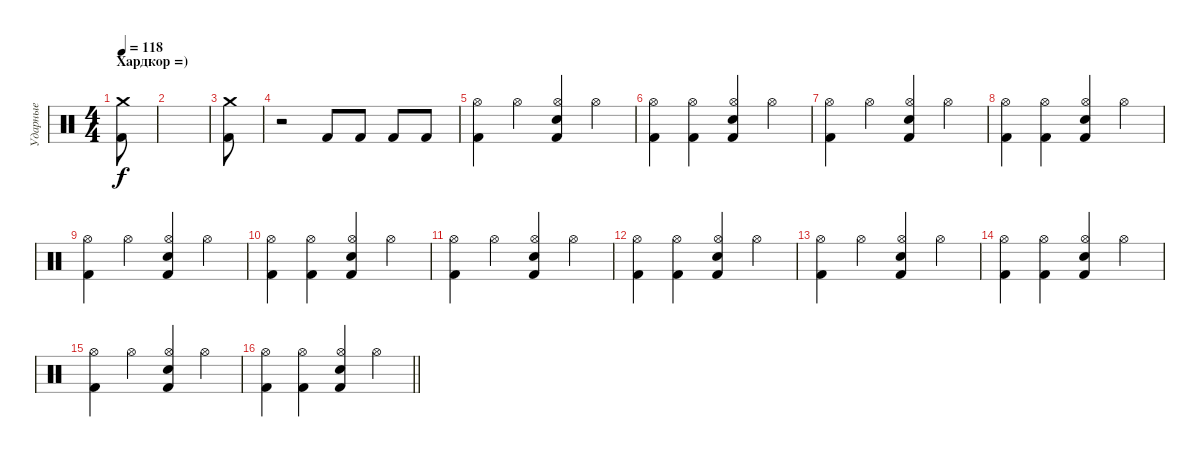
\track ("Ударные" "Ударные") {instrument percussion}
\staff {score}
\articulation defaults
\ts (4 4)
\section ("" "Хардкор =)")
\tempo 118
\clef neutral
\ks c
("Kick (hit) 2" "Crash medium (hit)").8{dy f} |
|
("Kick (hit) 2" "Crash medium (hit)").8 |
r.2 "Kick (hit) 2".8 "Kick (hit) 2".8 "Kick (hit) 2".8 "Kick (hit) 2".8 |
("Hi-Hat (open)" "Kick (hit) 2").4 "Hi-Hat (open)".4 ("Hi-Hat (open)" "Kick (hit) 2" "Electric Snare (hit)").4 "Hi-Hat (open)".4 |
("Hi-Hat (open)" "Kick (hit) 2").4 ("Hi-Hat (open)" "Kick (hit) 2").4 ("Hi-Hat (open)" "Kick (hit) 2" "Electric Snare (hit)").4 "Hi-Hat (open)".4 |
("Hi-Hat (open)" "Kick (hit) 2").4 "Hi-Hat (open)".4 ("Hi-Hat (open)" "Kick (hit) 2" "Electric Snare (hit)").4 "Hi-Hat (open)".4 |
("Hi-Hat (open)" "Kick (hit) 2").4 ("Hi-Hat (open)" "Kick (hit) 2").4 ("Hi-Hat (open)" "Kick (hit) 2" "Electric Snare (hit)").4 "Hi-Hat (open)".4 |
("Hi-Hat (open)" "Kick (hit) 2").4 "Hi-Hat (open)".4 ("Hi-Hat (open)" "Kick (hit) 2" "Electric Snare (hit)").4 "Hi-Hat (open)".4 |
("Hi-Hat (open)" "Kick (hit) 2").4 ("Hi-Hat (open)" "Kick (hit) 2").4 ("Hi-Hat (open)" "Kick (hit) 2" "Electric Snare (hit)").4 "Hi-Hat (open)".4 |
("Hi-Hat (open)" "Kick (hit) 2").4 "Hi-Hat (open)".4 ("Hi-Hat (open)" "Kick (hit) 2" "Electric Snare (hit)").4 "Hi-Hat (open)".4 |
("Hi-Hat (open)" "Kick (hit) 2").4 ("Hi-Hat (open)" "Kick (hit) 2").4 ("Hi-Hat (open)" "Kick (hit) 2" "Electric Snare (hit)").4 "Hi-Hat (open)".4 |
("Hi-Hat (open)" "Kick (hit) 2").4 "Hi-Hat (open)".4 ("Hi-Hat (open)" "Kick (hit) 2" "Electric Snare (hit)").4 "Hi-Hat (open)".4 |
("Hi-Hat (open)" "Kick (hit) 2").4 ("Hi-Hat (open)" "Kick (hit) 2").4 ("Hi-Hat (open)" "Kick (hit) 2" "Electric Snare (hit)").4 "Hi-Hat (open)".4 |
("Hi-Hat (open)" "Kick (hit) 2").4 "Hi-Hat (open)".4 ("Hi-Hat (open)" "Kick (hit) 2" "Electric Snare (hit)").4 "Hi-Hat (open)".4 |
\barLineRight lightlight
("Hi-Hat (open)" "Kick (hit) 2").4 ("Hi-Hat (open)" "Kick (hit) 2").4 ("Hi-Hat (open)" "Kick (hit) 2" "Electric Snare (hit)").4 "Hi-Hat (open)".4
